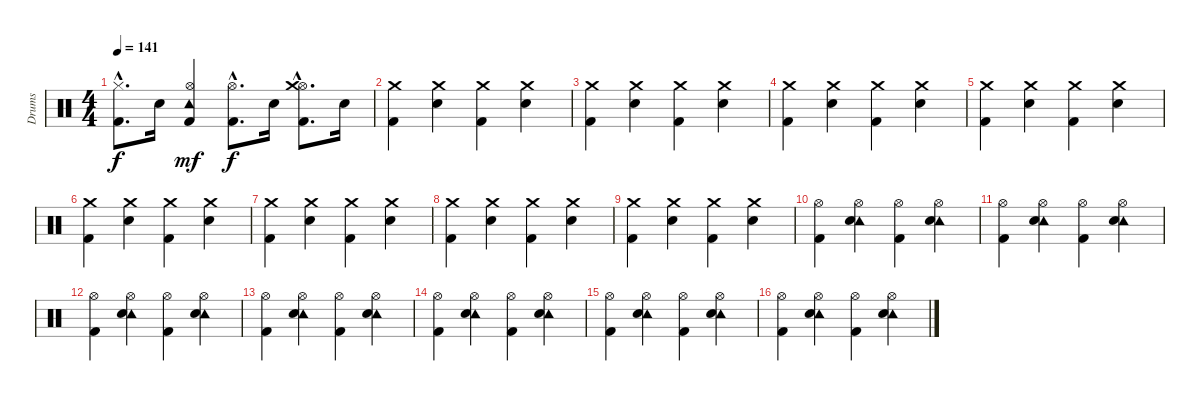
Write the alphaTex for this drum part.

\track ("Drums" "Drums") {instrument percussion}
\staff {score}
\articulation defaults
\ts (4 4)
\tempo 141
\clef neutral
\ks c
("Hi-Hat (closed)"{hac} "Kick (hit) 2"{hac}).8{d dy f} "Snare (hit) 2".16 ("Hi-Hat (open)" "Tambourine (hit)" "Kick (hit) 2").4{dy mf} ("Hi-Hat (open)"{hac} "Kick (hit) 2"{hac}).8{d dy f} "Snare (hit) 2".16 ("Hi-Hat (open)"{hac} "Crash medium (hit)"{hac} "Kick (hit) 2"{hac}).8{d} "Snare (hit) 2".16 |
("Crash medium (hit)" "Kick (hit) 2").4 ("Crash medium (hit)" "Snare (hit) 2").4 ("Crash medium (hit)" "Kick (hit) 2").4 ("Crash medium (hit)" "Snare (hit) 2").4 |
("Crash medium (hit)" "Kick (hit) 2").4 ("Crash medium (hit)" "Snare (hit) 2").4 ("Crash medium (hit)" "Kick (hit) 2").4 ("Crash medium (hit)" "Snare (hit) 2").4 |
("Crash medium (hit)" "Kick (hit) 2").4 ("Crash medium (hit)" "Snare (hit) 2").4 ("Crash medium (hit)" "Kick (hit) 2").4 ("Crash medium (hit)" "Snare (hit) 2").4 |
("Crash medium (hit)" "Kick (hit) 2").4 ("Crash medium (hit)" "Snare (hit) 2").4 ("Crash medium (hit)" "Kick (hit) 2").4 ("Crash medium (hit)" "Snare (hit) 2").4 |
("Crash medium (hit)" "Kick (hit) 2").4 ("Crash medium (hit)" "Snare (hit) 2").4 ("Crash medium (hit)" "Kick (hit) 2").4 ("Crash medium (hit)" "Snare (hit) 2").4 |
("Crash medium (hit)" "Kick (hit) 2").4 ("Crash medium (hit)" "Snare (hit) 2").4 ("Crash medium (hit)" "Kick (hit) 2").4 ("Crash medium (hit)" "Snare (hit) 2").4 |
("Crash medium (hit)" "Kick (hit) 2").4 ("Crash medium (hit)" "Snare (hit) 2").4 ("Crash medium (hit)" "Kick (hit) 2").4 ("Crash medium (hit)" "Snare (hit) 2").4 |
("Crash medium (hit)" "Kick (hit) 2").4 ("Crash medium (hit)" "Snare (hit) 2").4 ("Crash medium (hit)" "Kick (hit) 2").4 ("Crash medium (hit)" "Snare (hit) 2").4 |
("Hi-Hat (open)" "Kick (hit) 2").4 ("Hi-Hat (open)" "Tambourine (hit)" "Snare (hit) 2").4 ("Hi-Hat (open)" "Kick (hit) 2").4 ("Hi-Hat (open)" "Tambourine (hit)" "Snare (hit) 2").4 |
("Hi-Hat (open)" "Kick (hit) 2").4 ("Hi-Hat (open)" "Tambourine (hit)" "Snare (hit) 2").4 ("Hi-Hat (open)" "Kick (hit) 2").4 ("Hi-Hat (open)" "Tambourine (hit)" "Snare (hit) 2").4 |
("Hi-Hat (open)" "Kick (hit) 2").4 ("Hi-Hat (open)" "Tambourine (hit)" "Snare (hit) 2").4 ("Hi-Hat (open)" "Kick (hit) 2").4 ("Hi-Hat (open)" "Tambourine (hit)" "Snare (hit) 2").4 |
("Hi-Hat (open)" "Kick (hit) 2").4 ("Hi-Hat (open)" "Tambourine (hit)" "Snare (hit) 2").4 ("Hi-Hat (open)" "Kick (hit) 2").4 ("Hi-Hat (open)" "Tambourine (hit)" "Snare (hit) 2").4 |
("Hi-Hat (open)" "Kick (hit) 2").4 ("Hi-Hat (open)" "Tambourine (hit)" "Snare (hit) 2").4 ("Hi-Hat (open)" "Kick (hit) 2").4 ("Hi-Hat (open)" "Tambourine (hit)" "Snare (hit) 2").4 |
("Hi-Hat (open)" "Kick (hit) 2").4 ("Hi-Hat (open)" "Tambourine (hit)" "Snare (hit) 2").4 ("Hi-Hat (open)" "Kick (hit) 2").4 ("Hi-Hat (open)" "Tambourine (hit)" "Snare (hit) 2").4 |
("Hi-Hat (open)" "Kick (hit) 2").4 ("Hi-Hat (open)" "Tambourine (hit)" "Snare (hit) 2").4 ("Hi-Hat (open)" "Kick (hit) 2").4 ("Hi-Hat (open)" "Tambourine (hit)" "Snare (hit) 2").4
